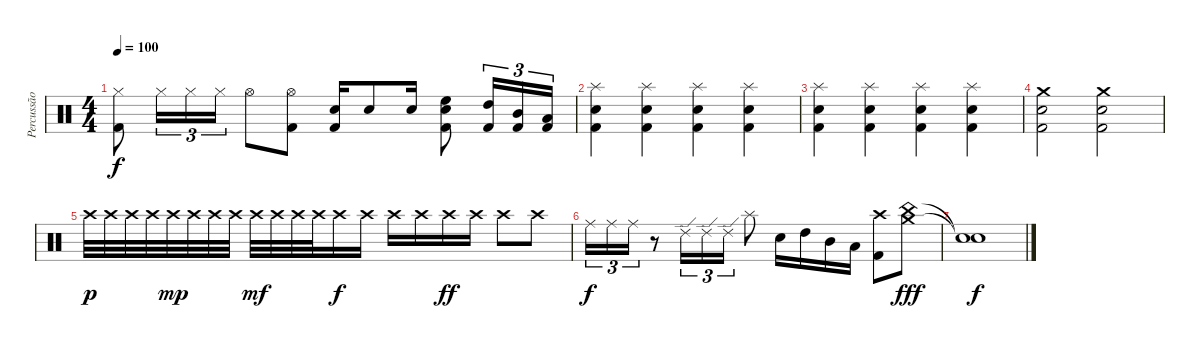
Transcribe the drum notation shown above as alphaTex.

\track ("Percussão" "Percussão") {instrument percussion}
\staff {score}
\articulation defaults
\ts (4 4)
\tempo 100
\clef neutral
\ks c
("Hi-Hat (closed)" "Kick (hit) 2").8{dy f} "Hi-Hat (closed)".16{tu (3 2)} "Hi-Hat (closed)".16{tu (3 2)} "Hi-Hat (closed)".16{tu (3 2)} "Hi-Hat (open)".8 ("Hi-Hat (open)" "Kick (hit) 2").8 ("Electric Snare (hit)" "Kick (hit) 2").16 "Electric Snare (hit)".8 "Electric Snare (hit)".16 ("High Floor Tom (hit)" "Electric Snare (hit)" "Kick (hit) 2").8 ("High Tom (hit)" "Kick (hit) 2").16{tu (3 2)} ("Mid Tom (hit)" "Kick (hit) 2").16{tu (3 2)} ("Low Tom (hit)" "Kick (hit) 2").16{tu (3 2)} |
("Splash (hit)" "Electric Snare (hit)" "Kick (hit) 2").4 ("Splash (hit)" "Electric Snare (hit)" "Kick (hit) 2").4 ("Splash (hit)" "Electric Snare (hit)" "Kick (hit) 2").4 ("Splash (hit)" "Electric Snare (hit)" "Kick (hit) 2").4 |
("Splash (hit)" "Electric Snare (hit)" "Kick (hit) 2").4 ("Splash (hit)" "Electric Snare (hit)" "Kick (hit) 2").4 ("Splash (hit)" "Kick (hit) 2" "Electric Snare (hit)").4 ("Splash (hit)" "Electric Snare (hit)" "Kick (hit) 2").4 |
("Crash medium (hit)" "Electric Snare (hit)" "Kick (hit) 2").2 ("Crash medium (hit)" "Electric Snare (hit)" "Kick (hit) 2").2 |
"Crash high (hit)".32{dy p} "Crash high (hit)".32 "Crash high (hit)".32 "Crash high (hit)".32 "Crash high (hit)".32{dy mp} "Crash high (hit)".32 "Crash high (hit)".32 "Crash high (hit)".32 "Crash high (hit)".32{dy mf} "Crash high (hit)".32 "Crash high (hit)".32 "Crash high (hit)".32 "Crash high (hit)".16{dy f} "Crash high (hit)".16 "Crash high (hit)".16 "Crash high (hit)".16 "Crash high (hit)".16{dy ff} "Crash high (hit)".16 "Crash high (hit)".8 "Crash high (hit)".8 |
"Ride (middle)".16{tu (3 2) dy f} "Ride (middle)".16{tu (3 2)} "Ride (middle)".16{tu (3 2)} r.8 "Ride (edge) 2".16{tu (3 2)} "Ride (edge) 2".16{tu (3 2)} "Ride (edge) 2".16{tu (3 2)} "Splash (hit)".8 "Electric Snare (hit)".16 "High Tom (hit)".16 "Mid Tom (hit)".16 "Low Tom (hit)".16 ("Crash high (hit)" "Kick (hit) 2").8 ("Crash medium (hit)" "China (hit)").8{dy fff} |
("Snare (hit)"{t} "Snare (hit)"{t}).1{dy f}
